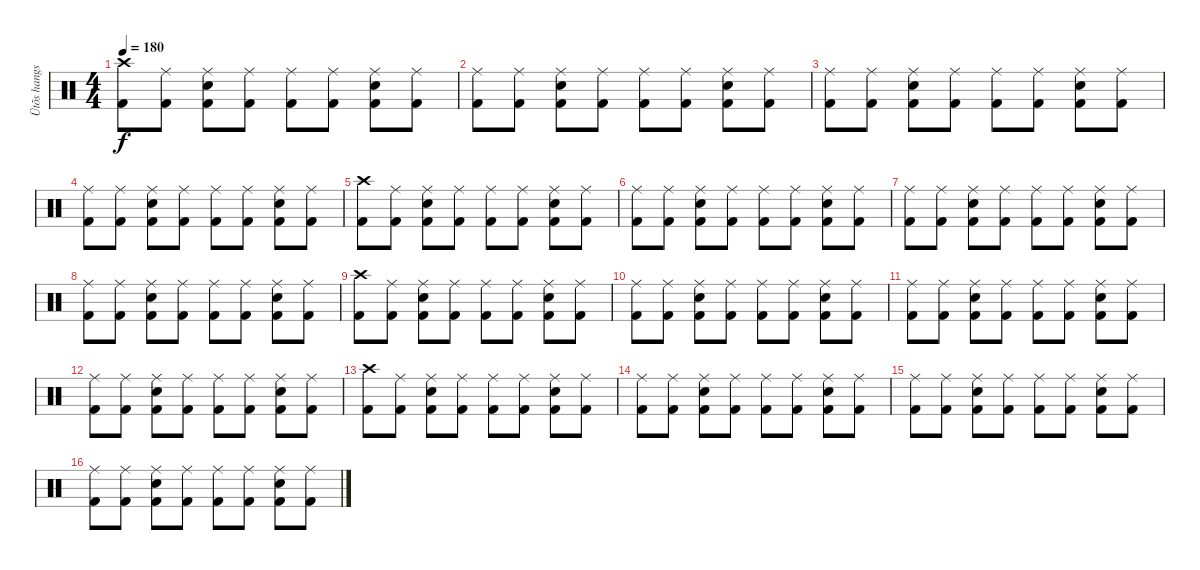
\track ("Ütõs hangszer" "Ütõs hangs") {instrument percussion}
\staff {score}
\articulation defaults
\ts (4 4)
\tempo 180
\clef neutral
\ks c
("Crash high (hit)" "Kick (hit) 2").8{dy f} ("Ride (middle)" "Kick (hit) 2").8 ("Ride (middle)" "Electric Snare (hit)" "Kick (hit) 2").8 ("Ride (middle)" "Kick (hit) 2").8 ("Ride (middle)" "Kick (hit) 2").8 ("Ride (middle)" "Kick (hit) 2").8 ("Ride (middle)" "Electric Snare (hit)" "Kick (hit) 2").8 ("Ride (middle)" "Kick (hit) 2").8 |
("Ride (middle)" "Kick (hit) 2").8 ("Ride (middle)" "Kick (hit) 2").8 ("Ride (middle)" "Electric Snare (hit)" "Kick (hit) 2").8 ("Ride (middle)" "Kick (hit) 2").8 ("Ride (middle)" "Kick (hit) 2").8 ("Ride (middle)" "Kick (hit) 2").8 ("Ride (middle)" "Electric Snare (hit)" "Kick (hit) 2").8 ("Ride (middle)" "Kick (hit) 2").8 |
("Ride (middle)" "Kick (hit) 2").8 ("Ride (middle)" "Kick (hit) 2").8 ("Ride (middle)" "Electric Snare (hit)" "Kick (hit) 2").8 ("Ride (middle)" "Kick (hit) 2").8 ("Ride (middle)" "Kick (hit) 2").8 ("Ride (middle)" "Kick (hit) 2").8 ("Ride (middle)" "Electric Snare (hit)" "Kick (hit) 2").8 ("Ride (middle)" "Kick (hit) 2").8 |
("Ride (middle)" "Kick (hit) 2").8 ("Ride (middle)" "Kick (hit) 2").8 ("Ride (middle)" "Electric Snare (hit)" "Kick (hit) 2").8 ("Ride (middle)" "Kick (hit) 2").8 ("Ride (middle)" "Kick (hit) 2").8 ("Ride (middle)" "Kick (hit) 2").8 ("Ride (middle)" "Electric Snare (hit)" "Kick (hit) 2").8 ("Ride (middle)" "Kick (hit) 2").8 |
("Crash high (hit)" "Kick (hit) 2").8 ("Ride (middle)" "Kick (hit) 2").8 ("Ride (middle)" "Electric Snare (hit)" "Kick (hit) 2").8 ("Ride (middle)" "Kick (hit) 2").8 ("Ride (middle)" "Kick (hit) 2").8 ("Ride (middle)" "Kick (hit) 2").8 ("Ride (middle)" "Electric Snare (hit)" "Kick (hit) 2").8 ("Ride (middle)" "Kick (hit) 2").8 |
("Ride (middle)" "Kick (hit) 2").8 ("Ride (middle)" "Kick (hit) 2").8 ("Ride (middle)" "Electric Snare (hit)" "Kick (hit) 2").8 ("Ride (middle)" "Kick (hit) 2").8 ("Ride (middle)" "Kick (hit) 2").8 ("Ride (middle)" "Kick (hit) 2").8 ("Ride (middle)" "Electric Snare (hit)" "Kick (hit) 2").8 ("Ride (middle)" "Kick (hit) 2").8 |
("Ride (middle)" "Kick (hit) 2").8 ("Ride (middle)" "Kick (hit) 2").8 ("Ride (middle)" "Electric Snare (hit)" "Kick (hit) 2").8 ("Ride (middle)" "Kick (hit) 2").8 ("Ride (middle)" "Kick (hit) 2").8 ("Ride (middle)" "Kick (hit) 2").8 ("Ride (middle)" "Electric Snare (hit)" "Kick (hit) 2").8 ("Ride (middle)" "Kick (hit) 2").8 |
("Ride (middle)" "Kick (hit) 2").8 ("Ride (middle)" "Kick (hit) 2").8 ("Ride (middle)" "Electric Snare (hit)" "Kick (hit) 2").8 ("Ride (middle)" "Kick (hit) 2").8 ("Ride (middle)" "Kick (hit) 2").8 ("Ride (middle)" "Kick (hit) 2").8 ("Ride (middle)" "Electric Snare (hit)" "Kick (hit) 2").8 ("Ride (middle)" "Kick (hit) 2").8 |
("Crash high (hit)" "Kick (hit) 2").8 ("Ride (middle)" "Kick (hit) 2").8 ("Ride (middle)" "Electric Snare (hit)" "Kick (hit) 2").8 ("Ride (middle)" "Kick (hit) 2").8 ("Ride (middle)" "Kick (hit) 2").8 ("Ride (middle)" "Kick (hit) 2").8 ("Ride (middle)" "Electric Snare (hit)" "Kick (hit) 2").8 ("Ride (middle)" "Kick (hit) 2").8 |
("Ride (middle)" "Kick (hit) 2").8 ("Ride (middle)" "Kick (hit) 2").8 ("Ride (middle)" "Electric Snare (hit)" "Kick (hit) 2").8 ("Ride (middle)" "Kick (hit) 2").8 ("Ride (middle)" "Kick (hit) 2").8 ("Ride (middle)" "Kick (hit) 2").8 ("Ride (middle)" "Electric Snare (hit)" "Kick (hit) 2").8 ("Ride (middle)" "Kick (hit) 2").8 |
("Ride (middle)" "Kick (hit) 2").8 ("Ride (middle)" "Kick (hit) 2").8 ("Ride (middle)" "Electric Snare (hit)" "Kick (hit) 2").8 ("Ride (middle)" "Kick (hit) 2").8 ("Ride (middle)" "Kick (hit) 2").8 ("Ride (middle)" "Kick (hit) 2").8 ("Ride (middle)" "Electric Snare (hit)" "Kick (hit) 2").8 ("Ride (middle)" "Kick (hit) 2").8 |
("Ride (middle)" "Kick (hit) 2").8 ("Ride (middle)" "Kick (hit) 2").8 ("Ride (middle)" "Electric Snare (hit)" "Kick (hit) 2").8 ("Ride (middle)" "Kick (hit) 2").8 ("Ride (middle)" "Kick (hit) 2").8 ("Ride (middle)" "Kick (hit) 2").8 ("Ride (middle)" "Electric Snare (hit)" "Kick (hit) 2").8 ("Ride (middle)" "Kick (hit) 2").8 |
("Crash high (hit)" "Kick (hit) 2").8 ("Ride (middle)" "Kick (hit) 2").8 ("Ride (middle)" "Electric Snare (hit)" "Kick (hit) 2").8 ("Ride (middle)" "Kick (hit) 2").8 ("Ride (middle)" "Kick (hit) 2").8 ("Ride (middle)" "Kick (hit) 2").8 ("Ride (middle)" "Electric Snare (hit)" "Kick (hit) 2").8 ("Ride (middle)" "Kick (hit) 2").8 |
("Ride (middle)" "Kick (hit) 2").8 ("Ride (middle)" "Kick (hit) 2").8 ("Ride (middle)" "Electric Snare (hit)" "Kick (hit) 2").8 ("Ride (middle)" "Kick (hit) 2").8 ("Ride (middle)" "Kick (hit) 2").8 ("Ride (middle)" "Kick (hit) 2").8 ("Ride (middle)" "Electric Snare (hit)" "Kick (hit) 2").8 ("Ride (middle)" "Kick (hit) 2").8 |
("Ride (middle)" "Kick (hit) 2").8 ("Ride (middle)" "Kick (hit) 2").8 ("Ride (middle)" "Electric Snare (hit)" "Kick (hit) 2").8 ("Ride (middle)" "Kick (hit) 2").8 ("Ride (middle)" "Kick (hit) 2").8 ("Ride (middle)" "Kick (hit) 2").8 ("Ride (middle)" "Electric Snare (hit)" "Kick (hit) 2").8 ("Ride (middle)" "Kick (hit) 2").8 |
("Ride (middle)" "Kick (hit) 2").8 ("Ride (middle)" "Kick (hit) 2").8 ("Ride (middle)" "Electric Snare (hit)" "Kick (hit) 2").8 ("Ride (middle)" "Kick (hit) 2").8 ("Ride (middle)" "Kick (hit) 2").8 ("Ride (middle)" "Kick (hit) 2").8 ("Ride (middle)" "Electric Snare (hit)" "Kick (hit) 2").8 ("Ride (middle)" "Kick (hit) 2").8
